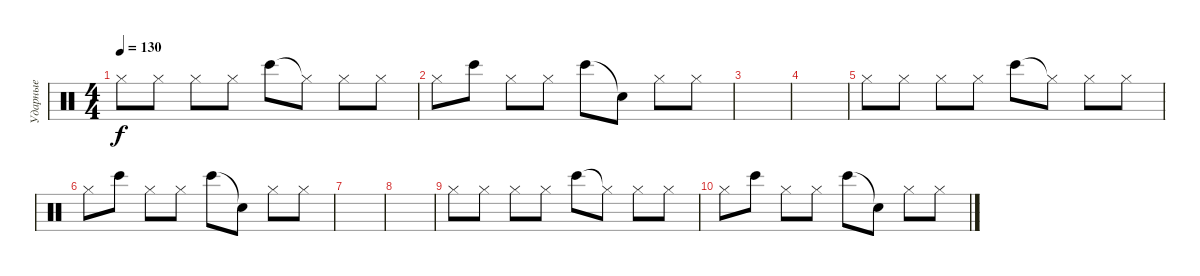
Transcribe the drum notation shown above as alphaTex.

\track ("Ударные" "Ударные") {instrument percussion}
\staff {score}
\articulation defaults
\ts (4 4)
\tempo 130
\clef neutral
\ks c "Hi-Hat (closed)".8{dy f} "Hi-Hat (closed)".8 "Hi-Hat (closed)".8 "Hi-Hat (closed)".8 "Bongo High (hit)".8 "Hi-Hat (closed)"{t}.8 "Hi-Hat (closed)".8 "Hi-Hat (closed)".8
|
"Hi-Hat (closed)".8 "Bongo High (hit)".8 "Hi-Hat (closed)".8 "Hi-Hat (closed)".8 "Bongo High (hit)".8 "Snare (hit)"{t}.8 "Hi-Hat (closed)".8 "Hi-Hat (closed)".8 |
|
|
"Hi-Hat (closed)".8 "Hi-Hat (closed)".8 "Hi-Hat (closed)".8 "Hi-Hat (closed)".8 "Bongo High (hit)".8 "Hi-Hat (closed)"{t}.8 "Hi-Hat (closed)".8 "Hi-Hat (closed)".8 |
"Hi-Hat (closed)".8 "Bongo High (hit)".8 "Hi-Hat (closed)".8 "Hi-Hat (closed)".8 "Bongo High (hit)".8 "Snare (hit)"{t}.8 "Hi-Hat (closed)".8 "Hi-Hat (closed)".8 |
|
|
"Hi-Hat (closed)".8 "Hi-Hat (closed)".8 "Hi-Hat (closed)".8 "Hi-Hat (closed)".8 "Bongo High (hit)".8 "Hi-Hat (closed)"{t}.8 "Hi-Hat (closed)".8 "Hi-Hat (closed)".8 |
"Hi-Hat (closed)".8 "Bongo High (hit)".8 "Hi-Hat (closed)".8 "Hi-Hat (closed)".8 "Bongo High (hit)".8 "Snare (hit)"{t}.8 "Hi-Hat (closed)".8 "Hi-Hat (closed)".8
